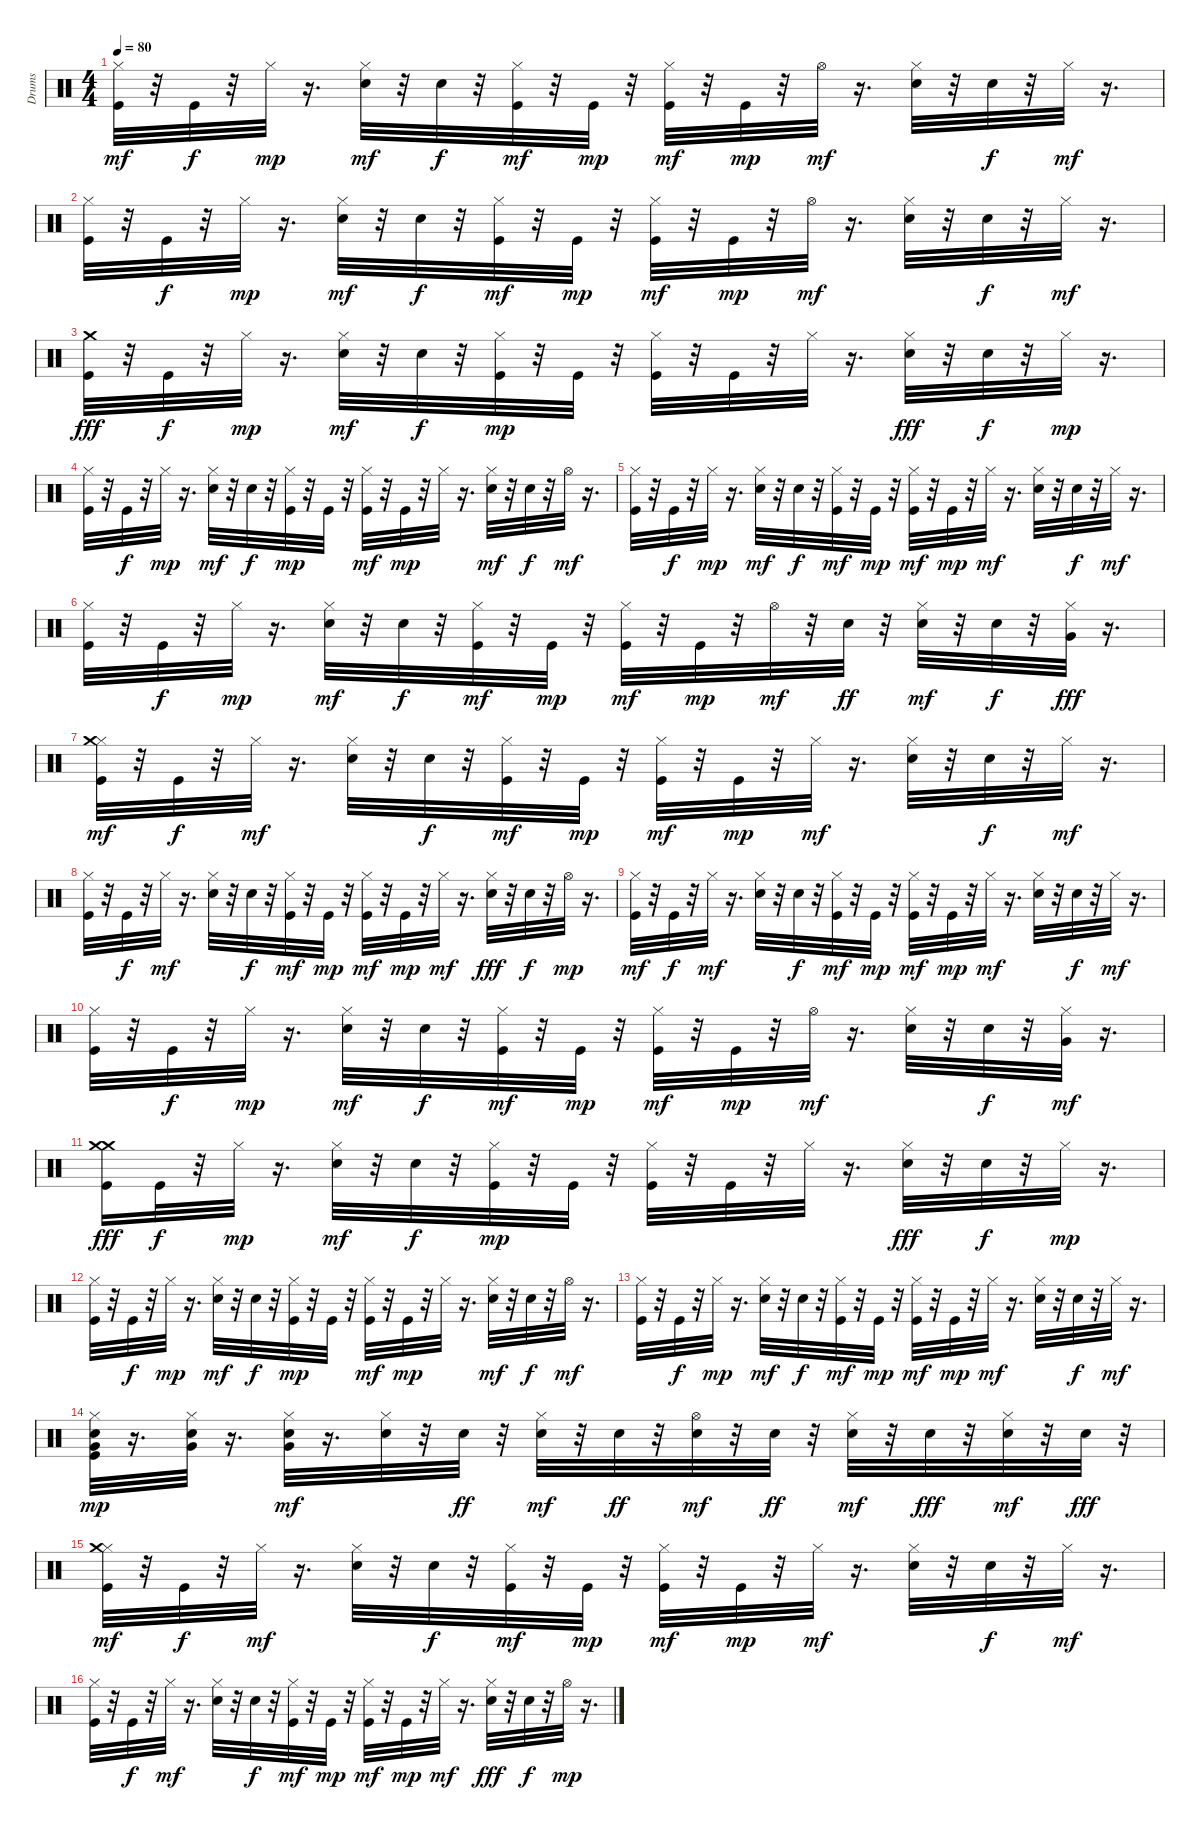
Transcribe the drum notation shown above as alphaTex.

\track ("Drums" "Drums") {instrument percussion}
\staff {score}
\articulation defaults
\ts (4 4)
\tempo 80
\clef neutral
\ks c
("Kick (hit)" "Hi-Hat (closed)").32{dy mf} r.32 "Kick (hit)".32{dy f} r.32 "Hi-Hat (closed)".32{dy mp} r.16{d} ("Snare (hit) 2" "Hi-Hat (closed)").32{dy mf} r.32 "Snare (hit) 2".32{dy f} r.32 ("Kick (hit)" "Hi-Hat (closed)").32{dy mf} r.32 "Kick (hit)".32{dy mp} r.32 ("Kick (hit)" "Hi-Hat (closed)").32{dy mf} r.32 "Kick (hit)".32{dy mp} r.32 "Hi-Hat (open)".32{dy mf} r.16{d} ("Snare (hit) 2" "Hi-Hat (closed)").32 r.32 "Snare (hit) 2".32{dy f} r.32 "Hi-Hat (closed)".32{dy mf} r.16{d} |
("Kick (hit)" "Hi-Hat (closed)").32 r.32 "Kick (hit)".32{dy f} r.32 "Hi-Hat (closed)".32{dy mp} r.16{d} ("Snare (hit) 2" "Hi-Hat (closed)").32{dy mf} r.32 "Snare (hit) 2".32{dy f} r.32 ("Kick (hit)" "Hi-Hat (closed)").32{dy mf} r.32 "Kick (hit)".32{dy mp} r.32 ("Kick (hit)" "Hi-Hat (closed)").32{dy mf} r.32 "Kick (hit)".32{dy mp} r.32 "Hi-Hat (open)".32{dy mf} r.16{d} ("Snare (hit) 2" "Hi-Hat (closed)").32 r.32 "Snare (hit) 2".32{dy f} r.32 "Hi-Hat (closed)".32{dy mf} r.16{d} |
("Kick (hit)" "Crash medium (hit)").32{dy fff} r.32 "Kick (hit)".32{dy f} r.32 "Hi-Hat (closed)".32{dy mp} r.16{d} ("Snare (hit) 2" "Hi-Hat (closed)").32{dy mf} r.32 "Snare (hit) 2".32{dy f} r.32 ("Kick (hit)" "Hi-Hat (closed)").32{dy mp} r.32 "Kick (hit)".32 r.32 ("Kick (hit)" "Hi-Hat (closed)").32 r.32 "Kick (hit)".32 r.32 "Hi-Hat (closed)".32 r.16{d} ("Snare (hit) 2" "Hi-Hat (closed)").32{dy fff} r.32 "Snare (hit) 2".32{dy f} r.32 "Hi-Hat (closed)".32{dy mp} r.16{d} |
("Kick (hit)" "Hi-Hat (closed)").32 r.32 "Kick (hit)".32{dy f} r.32 "Hi-Hat (closed)".32{dy mp} r.16{d} ("Snare (hit) 2" "Hi-Hat (closed)").32{dy mf} r.32 "Snare (hit) 2".32{dy f} r.32 ("Kick (hit)" "Hi-Hat (closed)").32{dy mp} r.32 "Kick (hit)".32 r.32 ("Kick (hit)" "Hi-Hat (closed)").32{dy mf} r.32 "Kick (hit)".32{dy mp} r.32 "Hi-Hat (closed)".32 r.16{d} ("Snare (hit) 2" "Hi-Hat (closed)").32{dy mf} r.32 "Snare (hit) 2".32{dy f} r.32 "Hi-Hat (open)".32{dy mf} r.16{d} |
("Kick (hit)" "Hi-Hat (closed)").32 r.32 "Kick (hit)".32{dy f} r.32 "Hi-Hat (closed)".32{dy mp} r.16{d} ("Snare (hit) 2" "Hi-Hat (closed)").32{dy mf} r.32 "Snare (hit) 2".32{dy f} r.32 ("Kick (hit)" "Hi-Hat (closed)").32{dy mf} r.32 "Kick (hit)".32{dy mp} r.32 ("Kick (hit)" "Hi-Hat (closed)").32{dy mf} r.32 "Kick (hit)".32{dy mp} r.32 "Hi-Hat (closed)".32{dy mf} r.16{d} ("Snare (hit) 2" "Hi-Hat (closed)").32 r.32 "Snare (hit) 2".32{dy f} r.32 "Hi-Hat (closed)".32{dy mf} r.16{d} |
("Kick (hit)" "Hi-Hat (closed)").32 r.32 "Kick (hit)".32{dy f} r.32 "Hi-Hat (closed)".32{dy mp} r.16{d} ("Snare (hit) 2" "Hi-Hat (closed)").32{dy mf} r.32 "Snare (hit) 2".32{dy f} r.32 ("Kick (hit)" "Hi-Hat (closed)").32{dy mf} r.32 "Kick (hit)".32{dy mp} r.32 ("Kick (hit)" "Hi-Hat (closed)").32{dy mf} r.32 "Kick (hit)".32{dy mp} r.32 "Hi-Hat (open)".32{dy mf} r.32 "Snare (hit) 2".32{dy ff} r.32 ("Snare (hit) 2" "Hi-Hat (closed)").32{dy mf} r.32 "Snare (hit) 2".32{dy f} r.32 ("Hi-Hat (closed)" "Very Low Tom (hit)").32{dy fff} r.16{d} |
("Kick (hit)" "Hi-Hat (closed)" "Crash medium (hit)").32{dy mf} r.32 "Kick (hit)".32{dy f} r.32 "Hi-Hat (closed)".32{dy mf} r.16{d} ("Snare (hit) 2" "Hi-Hat (closed)").32 r.32 "Snare (hit) 2".32{dy f} r.32 ("Kick (hit)" "Hi-Hat (closed)").32{dy mf} r.32 "Kick (hit)".32{dy mp} r.32 ("Kick (hit)" "Hi-Hat (closed)").32{dy mf} r.32 "Kick (hit)".32{dy mp} r.32 "Hi-Hat (closed)".32{dy mf} r.16{d} ("Snare (hit) 2" "Hi-Hat (closed)").32 r.32 "Snare (hit) 2".32{dy f} r.32 "Hi-Hat (closed)".32{dy mf} r.16{d} |
("Kick (hit)" "Hi-Hat (closed)").32 r.32 "Kick (hit)".32{dy f} r.32 "Hi-Hat (closed)".32{dy mf} r.16{d} ("Snare (hit) 2" "Hi-Hat (closed)").32 r.32 "Snare (hit) 2".32{dy f} r.32 ("Kick (hit)" "Hi-Hat (closed)").32{dy mf} r.32 "Kick (hit)".32{dy mp} r.32 ("Kick (hit)" "Hi-Hat (closed)").32{dy mf} r.32 "Kick (hit)".32{dy mp} r.32 "Hi-Hat (closed)".32{dy mf} r.16{d} ("Snare (hit) 2" "Hi-Hat (closed)").32{dy fff} r.32 "Snare (hit) 2".32{dy f} r.32 "Hi-Hat (open)".32{dy mp} r.16{d} |
("Kick (hit)" "Hi-Hat (closed)").32{dy mf} r.32 "Kick (hit)".32{dy f} r.32 "Hi-Hat (closed)".32{dy mf} r.16{d} ("Snare (hit) 2" "Hi-Hat (closed)").32 r.32 "Snare (hit) 2".32{dy f} r.32 ("Kick (hit)" "Hi-Hat (closed)").32{dy mf} r.32 "Kick (hit)".32{dy mp} r.32 ("Kick (hit)" "Hi-Hat (closed)").32{dy mf} r.32 "Kick (hit)".32{dy mp} r.32 "Hi-Hat (closed)".32{dy mf} r.16{d} ("Snare (hit) 2" "Hi-Hat (closed)").32 r.32 "Snare (hit) 2".32{dy f} r.32 "Hi-Hat (closed)".32{dy mf} r.16{d} |
("Kick (hit)" "Hi-Hat (closed)").32 r.32 "Kick (hit)".32{dy f} r.32 "Hi-Hat (closed)".32{dy mp} r.16{d} ("Snare (hit) 2" "Hi-Hat (closed)").32{dy mf} r.32 "Snare (hit) 2".32{dy f} r.32 ("Kick (hit)" "Hi-Hat (closed)").32{dy mf} r.32 "Kick (hit)".32{dy mp} r.32 ("Kick (hit)" "Hi-Hat (closed)").32{dy mf} r.32 "Kick (hit)".32{dy mp} r.32 "Hi-Hat (open)".32{dy mf} r.16{d} ("Snare (hit) 2" "Hi-Hat (closed)").32 r.32 "Snare (hit) 2".32{dy f} r.32 ("Hi-Hat (closed)" "Very Low Tom (hit)").32{dy mf} r.16{d} |
("Kick (hit)" "Crash medium (hit)" "Crash medium (hit)").16{dy fff} "Kick (hit)".32{dy f} r.32 "Hi-Hat (closed)".32{dy mp} r.16{d} ("Snare (hit) 2" "Hi-Hat (closed)").32{dy mf} r.32 "Snare (hit) 2".32{dy f} r.32 ("Kick (hit)" "Hi-Hat (closed)").32{dy mp} r.32 "Kick (hit)".32 r.32 ("Kick (hit)" "Hi-Hat (closed)").32 r.32 "Kick (hit)".32 r.32 "Hi-Hat (closed)".32 r.16{d} ("Snare (hit) 2" "Hi-Hat (closed)").32{dy fff} r.32 "Snare (hit) 2".32{dy f} r.32 "Hi-Hat (closed)".32{dy mp} r.16{d} |
("Kick (hit)" "Hi-Hat (closed)").32 r.32 "Kick (hit)".32{dy f} r.32 "Hi-Hat (closed)".32{dy mp} r.16{d} ("Snare (hit) 2" "Hi-Hat (closed)").32{dy mf} r.32 "Snare (hit) 2".32{dy f} r.32 ("Kick (hit)" "Hi-Hat (closed)").32{dy mp} r.32 "Kick (hit)".32 r.32 ("Kick (hit)" "Hi-Hat (closed)").32{dy mf} r.32 "Kick (hit)".32{dy mp} r.32 "Hi-Hat (closed)".32 r.16{d} ("Snare (hit) 2" "Hi-Hat (closed)").32{dy mf} r.32 "Snare (hit) 2".32{dy f} r.32 "Hi-Hat (open)".32{dy mf} r.16{d} |
("Kick (hit)" "Hi-Hat (closed)").32 r.32 "Kick (hit)".32{dy f} r.32 "Hi-Hat (closed)".32{dy mp} r.16{d} ("Snare (hit) 2" "Hi-Hat (closed)").32{dy mf} r.32 "Snare (hit) 2".32{dy f} r.32 ("Kick (hit)" "Hi-Hat (closed)").32{dy mf} r.32 "Kick (hit)".32{dy mp} r.32 ("Kick (hit)" "Hi-Hat (closed)").32{dy mf} r.32 "Kick (hit)".32{dy mp} r.32 "Hi-Hat (closed)".32{dy mf} r.16{d} ("Snare (hit) 2" "Hi-Hat (closed)").32 r.32 "Snare (hit) 2".32{dy f} r.32 "Hi-Hat (closed)".32{dy mf} r.16{d} |
("Kick (hit)" "Snare (hit) 2" "Hi-Hat (closed)" "Very Low Tom (hit)").32{dy mp} r.16{d} ("Snare (hit) 2" "Hi-Hat (closed)" "Very Low Tom (hit)").32 r.16{d} ("Snare (hit) 2" "Hi-Hat (closed)" "Very Low Tom (hit)").32{dy mf} r.16{d} ("Snare (hit) 2" "Hi-Hat (closed)").32 r.32 "Snare (hit) 2".32{dy ff} r.32 ("Snare (hit) 2" "Hi-Hat (closed)").32{dy mf} r.32 "Snare (hit) 2".32{dy ff} r.32 ("Snare (hit) 2" "Hi-Hat (open)").32{dy mf} r.32 "Snare (hit) 2".32{dy ff} r.32 ("Snare (hit) 2" "Hi-Hat (closed)").32{dy mf} r.32 "Snare (hit) 2".32{dy fff} r.32 ("Snare (hit) 2" "Hi-Hat (closed)").32{dy mf} r.32 "Snare (hit) 2".32{dy fff} r.32 |
("Kick (hit)" "Hi-Hat (closed)" "Crash medium (hit)").32{dy mf} r.32 "Kick (hit)".32{dy f} r.32 "Hi-Hat (closed)".32{dy mf} r.16{d} ("Snare (hit) 2" "Hi-Hat (closed)").32 r.32 "Snare (hit) 2".32{dy f} r.32 ("Kick (hit)" "Hi-Hat (closed)").32{dy mf} r.32 "Kick (hit)".32{dy mp} r.32 ("Kick (hit)" "Hi-Hat (closed)").32{dy mf} r.32 "Kick (hit)".32{dy mp} r.32 "Hi-Hat (closed)".32{dy mf} r.16{d} ("Snare (hit) 2" "Hi-Hat (closed)").32 r.32 "Snare (hit) 2".32{dy f} r.32 "Hi-Hat (closed)".32{dy mf} r.16{d} |
("Kick (hit)" "Hi-Hat (closed)").32 r.32 "Kick (hit)".32{dy f} r.32 "Hi-Hat (closed)".32{dy mf} r.16{d} ("Snare (hit) 2" "Hi-Hat (closed)").32 r.32 "Snare (hit) 2".32{dy f} r.32 ("Kick (hit)" "Hi-Hat (closed)").32{dy mf} r.32 "Kick (hit)".32{dy mp} r.32 ("Kick (hit)" "Hi-Hat (closed)").32{dy mf} r.32 "Kick (hit)".32{dy mp} r.32 "Hi-Hat (closed)".32{dy mf} r.16{d} ("Snare (hit) 2" "Hi-Hat (closed)").32{dy fff} r.32 "Snare (hit) 2".32{dy f} r.32 "Hi-Hat (open)".32{dy mp} r.16{d}
